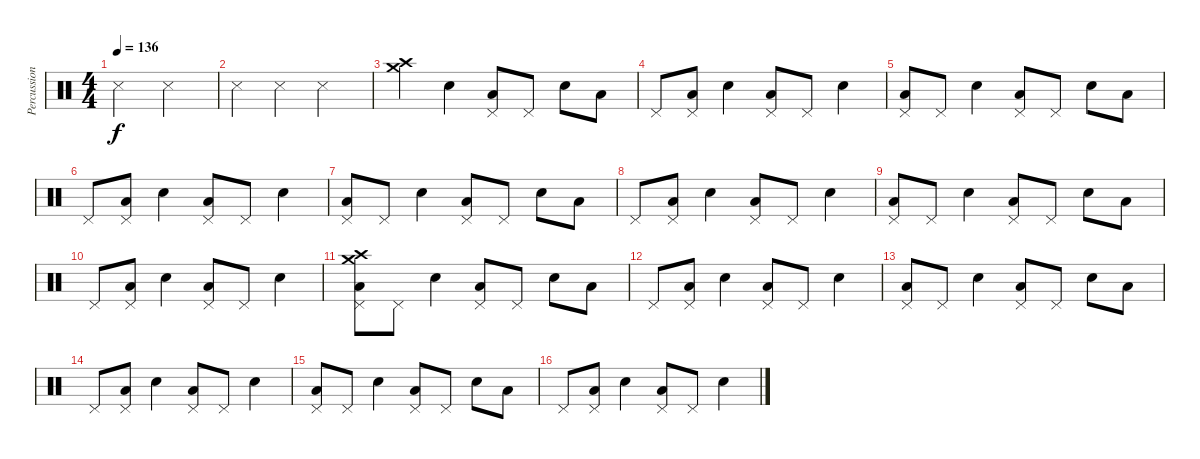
\track ("Percussions" "Percussion") {instrument percussion}
\staff {score}
\articulation defaults
\ts (4 4)
\tempo 136
\clef neutral
\ks c "Metronome (hit)".2{dy f} "Metronome (hit)".2
|
"Metronome (hit)".4 "Metronome (hit)".4 "Metronome (hit)".2 |
("Crash high (hit)" "Crash medium (hit)").4 "Snare (hit) 2".4 ("Low Floor Tom (hit)" "Pedal Hi-Hat (hit)").8 "Pedal Hi-Hat (hit)".8 "Snare (hit) 2".8 "Low Floor Tom (hit)".8 |
"Pedal Hi-Hat (hit)".8 ("Low Floor Tom (hit)" "Pedal Hi-Hat (hit)").8 "Snare (hit) 2".4 ("Low Floor Tom (hit)" "Pedal Hi-Hat (hit)").8 "Pedal Hi-Hat (hit)".8 "Snare (hit) 2".4 |
("Low Floor Tom (hit)" "Pedal Hi-Hat (hit)").8 "Pedal Hi-Hat (hit)".8 "Snare (hit) 2".4 ("Low Floor Tom (hit)" "Pedal Hi-Hat (hit)").8 "Pedal Hi-Hat (hit)".8 "Snare (hit) 2".8 "Low Floor Tom (hit)".8 |
"Pedal Hi-Hat (hit)".8 ("Low Floor Tom (hit)" "Pedal Hi-Hat (hit)").8 "Snare (hit) 2".4 ("Low Floor Tom (hit)" "Pedal Hi-Hat (hit)").8 "Pedal Hi-Hat (hit)".8 "Snare (hit) 2".4 |
("Low Floor Tom (hit)" "Pedal Hi-Hat (hit)").8 "Pedal Hi-Hat (hit)".8 "Snare (hit) 2".4 ("Low Floor Tom (hit)" "Pedal Hi-Hat (hit)").8 "Pedal Hi-Hat (hit)".8 "Snare (hit) 2".8 "Low Floor Tom (hit)".8 |
"Pedal Hi-Hat (hit)".8 ("Low Floor Tom (hit)" "Pedal Hi-Hat (hit)").8 "Snare (hit) 2".4 ("Low Floor Tom (hit)" "Pedal Hi-Hat (hit)").8 "Pedal Hi-Hat (hit)".8 "Snare (hit) 2".4 |
("Low Floor Tom (hit)" "Pedal Hi-Hat (hit)").8 "Pedal Hi-Hat (hit)".8 "Snare (hit) 2".4 ("Low Floor Tom (hit)" "Pedal Hi-Hat (hit)").8 "Pedal Hi-Hat (hit)".8 "Snare (hit) 2".8 "Low Floor Tom (hit)".8 |
"Pedal Hi-Hat (hit)".8 ("Low Floor Tom (hit)" "Pedal Hi-Hat (hit)").8 "Snare (hit) 2".4 ("Low Floor Tom (hit)" "Pedal Hi-Hat (hit)").8 "Pedal Hi-Hat (hit)".8 "Snare (hit) 2".4 |
("Low Floor Tom (hit)" "Pedal Hi-Hat (hit)" "Crash medium (hit)" "Crash high (hit)").8 "Pedal Hi-Hat (hit)".8 "Snare (hit) 2".4 ("Low Floor Tom (hit)" "Pedal Hi-Hat (hit)").8 "Pedal Hi-Hat (hit)".8 "Snare (hit) 2".8 "Low Floor Tom (hit)".8 |
"Pedal Hi-Hat (hit)".8 ("Low Floor Tom (hit)" "Pedal Hi-Hat (hit)").8 "Snare (hit) 2".4 ("Low Floor Tom (hit)" "Pedal Hi-Hat (hit)").8 "Pedal Hi-Hat (hit)".8 "Snare (hit) 2".4 |
("Low Floor Tom (hit)" "Pedal Hi-Hat (hit)").8 "Pedal Hi-Hat (hit)".8 "Snare (hit) 2".4 ("Low Floor Tom (hit)" "Pedal Hi-Hat (hit)").8 "Pedal Hi-Hat (hit)".8 "Snare (hit) 2".8 "Low Floor Tom (hit)".8 |
"Pedal Hi-Hat (hit)".8 ("Low Floor Tom (hit)" "Pedal Hi-Hat (hit)").8 "Snare (hit) 2".4 ("Low Floor Tom (hit)" "Pedal Hi-Hat (hit)").8 "Pedal Hi-Hat (hit)".8 "Snare (hit) 2".4 |
("Low Floor Tom (hit)" "Pedal Hi-Hat (hit)").8 "Pedal Hi-Hat (hit)".8 "Snare (hit) 2".4 ("Low Floor Tom (hit)" "Pedal Hi-Hat (hit)").8 "Pedal Hi-Hat (hit)".8 "Snare (hit) 2".8 "Low Floor Tom (hit)".8 |
"Pedal Hi-Hat (hit)".8 ("Low Floor Tom (hit)" "Pedal Hi-Hat (hit)").8 "Snare (hit) 2".4 ("Low Floor Tom (hit)" "Pedal Hi-Hat (hit)").8 "Pedal Hi-Hat (hit)".8 "Snare (hit) 2".4
